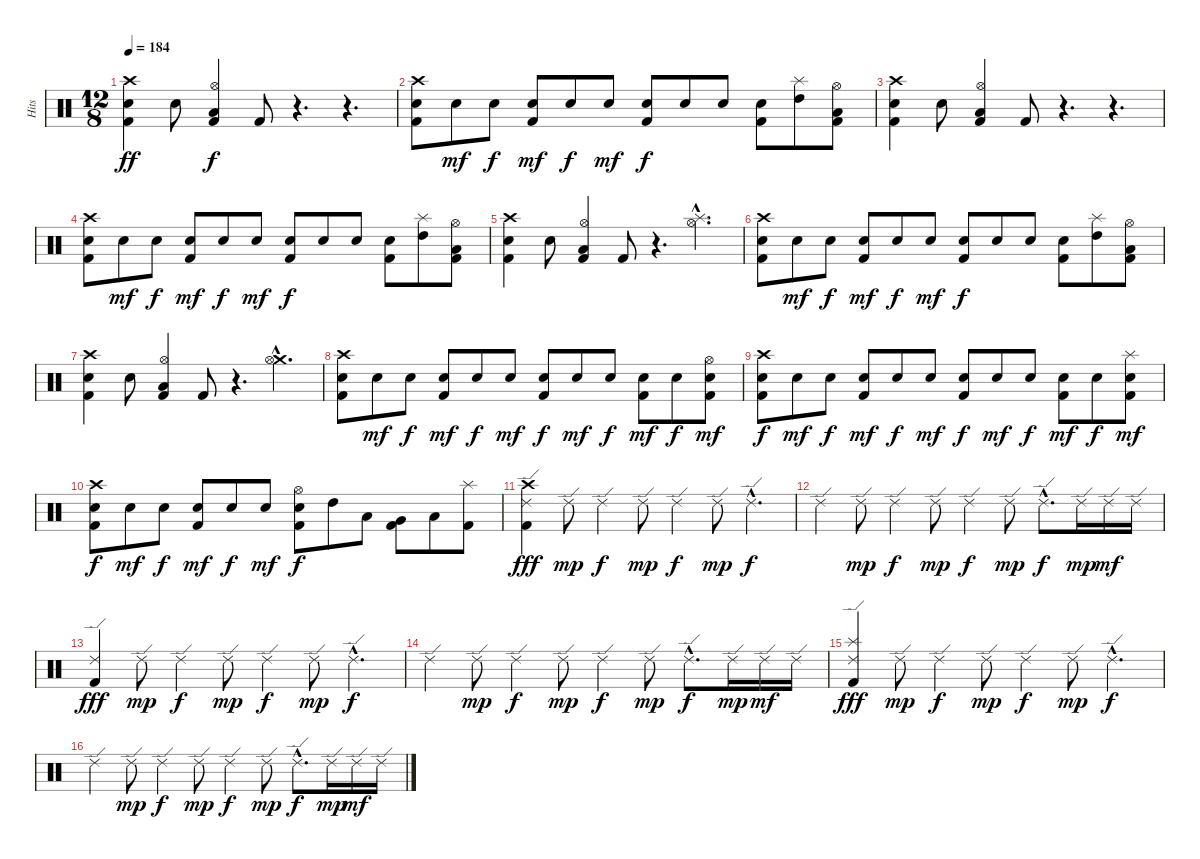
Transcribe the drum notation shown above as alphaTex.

\track ("Hits" "Hits") {instrument percussion}
\staff {score}
\articulation defaults
\ts (12 8)
\tempo 184
\clef neutral
\ks c
("Crash high (hit)" "Electric Snare (hit)" "Kick (hit) 2").4{dy ff} "Electric Snare (hit)".8 ("Hi-Hat (open)" "Low Tom (hit)" "Kick (hit) 2").4{dy f} "Kick (hit) 2".8 r.4{d} r.4{d} |
("Crash high (hit)" "Electric Snare (hit)" "Kick (hit) 2").8 "Electric Snare (hit)".8{dy mf} "Electric Snare (hit)".8{dy f} ("Electric Snare (hit)" "Kick (hit) 2").8{dy mf} "Electric Snare (hit)".8{dy f} "Electric Snare (hit)".8{dy mf} ("Electric Snare (hit)" "Kick (hit) 2").8{dy f} "Electric Snare (hit)".8 "Electric Snare (hit)".8 ("Electric Snare (hit)" "Kick (hit) 2").8 ("Splash (hit)" "High Tom (hit)").8 ("Hi-Hat (open)" "Low Floor Tom (hit)" "Kick (hit) 2").8 |
("Crash high (hit)" "Electric Snare (hit)" "Kick (hit) 2").4 "Electric Snare (hit)".8 ("Hi-Hat (open)" "Low Tom (hit)" "Kick (hit) 2").4 "Kick (hit) 2".8 r.4{d} r.4{d} |
("Crash high (hit)" "Electric Snare (hit)" "Kick (hit) 2").8 "Electric Snare (hit)".8{dy mf} "Electric Snare (hit)".8{dy f} ("Electric Snare (hit)" "Kick (hit) 2").8{dy mf} "Electric Snare (hit)".8{dy f} "Electric Snare (hit)".8{dy mf} ("Electric Snare (hit)" "Kick (hit) 2").8{dy f} "Electric Snare (hit)".8 "Electric Snare (hit)".8 ("Electric Snare (hit)" "Kick (hit) 2").8 ("Splash (hit)" "High Tom (hit)").8 ("Hi-Hat (open)" "Low Floor Tom (hit)" "Kick (hit) 2").8 |
("Crash high (hit)" "Electric Snare (hit)" "Kick (hit) 2").4 "Electric Snare (hit)".8 ("Hi-Hat (open)" "Low Tom (hit)" "Kick (hit) 2").4 "Kick (hit) 2".8 r.4{d} ("Splash (hit)"{hac} "Hi-Hat (open)"{hac}).4{d} |
("Crash high (hit)" "Electric Snare (hit)" "Kick (hit) 2").8 "Electric Snare (hit)".8{dy mf} "Electric Snare (hit)".8{dy f} ("Electric Snare (hit)" "Kick (hit) 2").8{dy mf} "Electric Snare (hit)".8{dy f} "Electric Snare (hit)".8{dy mf} ("Electric Snare (hit)" "Kick (hit) 2").8{dy f} "Electric Snare (hit)".8 "Electric Snare (hit)".8 ("Electric Snare (hit)" "Kick (hit) 2").8 ("Splash (hit)" "High Tom (hit)").8 ("Hi-Hat (open)" "Low Floor Tom (hit)" "Kick (hit) 2").8 |
("Crash high (hit)" "Electric Snare (hit)" "Kick (hit) 2").4 "Electric Snare (hit)".8 ("Hi-Hat (open)" "Low Tom (hit)" "Kick (hit) 2").4 "Kick (hit) 2".8 r.4{d} ("Crash medium (hit)"{hac} "Hi-Hat (open)"{hac}).4{d} |
("Crash high (hit)" "Electric Snare (hit)" "Kick (hit) 2").8 "Electric Snare (hit)".8{dy mf} "Electric Snare (hit)".8{dy f} ("Electric Snare (hit)" "Kick (hit) 2").8{dy mf} "Electric Snare (hit)".8{dy f} "Electric Snare (hit)".8{dy mf} ("Electric Snare (hit)" "Kick (hit) 2").8{dy f} "Electric Snare (hit)".8{dy mf} "Electric Snare (hit)".8{dy f} ("Electric Snare (hit)" "Kick (hit) 2").8{dy mf} "Electric Snare (hit)".8{dy f} ("Hi-Hat (open)" "Electric Snare (hit)" "Kick (hit) 2").8{dy mf} |
("Crash high (hit)" "Electric Snare (hit)" "Kick (hit) 2").8{dy f} "Electric Snare (hit)".8{dy mf} "Electric Snare (hit)".8{dy f} ("Electric Snare (hit)" "Kick (hit) 2").8{dy mf} "Electric Snare (hit)".8{dy f} "Electric Snare (hit)".8{dy mf} ("Electric Snare (hit)" "Kick (hit) 2").8{dy f} "Electric Snare (hit)".8{dy mf} "Electric Snare (hit)".8{dy f} ("Electric Snare (hit)" "Kick (hit) 2").8{dy mf} "Electric Snare (hit)".8{dy f} ("Splash (hit)" "Electric Snare (hit)" "Kick (hit) 2").8{dy mf} |
("Crash high (hit)" "Electric Snare (hit)" "Kick (hit) 2").8{dy f} "Electric Snare (hit)".8{dy mf} "Electric Snare (hit)".8{dy f} ("Electric Snare (hit)" "Kick (hit) 2").8{dy mf} "Electric Snare (hit)".8{dy f} "Electric Snare (hit)".8{dy mf} ("Hi-Hat (open)" "Electric Snare (hit)" "Kick (hit) 2").8{dy f} "High Tom (hit)".8 "Low Tom (hit)".8 ("Very Low Tom (hit)" "Kick (hit) 2").8 "Low Floor Tom (hit)".8 ("Splash (hit)" "Kick (hit) 2").8 |
("Crash high (hit)" "Ride (edge) 2" "Kick (hit) 2").4{dy fff} "Ride (edge) 2".8{dy mp} "Ride (edge) 2".4{dy f} "Ride (edge) 2".8{dy mp} "Ride (edge) 2".4{dy f} "Ride (edge) 2".8{dy mp} "Ride (edge) 2"{hac}.4{d dy f} |
"Ride (edge) 2".4 "Ride (edge) 2".8{dy mp} "Ride (edge) 2".4{dy f} "Ride (edge) 2".8{dy mp} "Ride (edge) 2".4{dy f} "Ride (edge) 2".8{dy mp} "Ride (edge) 2"{hac}.8{d dy f} "Ride (edge) 2".16{dy mp} "Ride (edge) 2".16{dy mf} "Ride (edge) 2".16 |
("Ride (edge) 2" "Kick (hit) 2").4{dy fff} "Ride (edge) 2".8{dy mp} "Ride (edge) 2".4{dy f} "Ride (edge) 2".8{dy mp} "Ride (edge) 2".4{dy f} "Ride (edge) 2".8{dy mp} "Ride (edge) 2"{hac}.4{d dy f} |
"Ride (edge) 2".4 "Ride (edge) 2".8{dy mp} "Ride (edge) 2".4{dy f} "Ride (edge) 2".8{dy mp} "Ride (edge) 2".4{dy f} "Ride (edge) 2".8{dy mp} "Ride (edge) 2"{hac}.8{d dy f} "Ride (edge) 2".16{dy mp} "Ride (edge) 2".16{dy mf} "Ride (edge) 2".16 |
("Splash (hit)" "Ride (edge) 2" "Kick (hit) 2").4{dy fff} "Ride (edge) 2".8{dy mp} "Ride (edge) 2".4{dy f} "Ride (edge) 2".8{dy mp} "Ride (edge) 2".4{dy f} "Ride (edge) 2".8{dy mp} "Ride (edge) 2"{hac}.4{d dy f} |
"Ride (edge) 2".4 "Ride (edge) 2".8{dy mp} "Ride (edge) 2".4{dy f} "Ride (edge) 2".8{dy mp} "Ride (edge) 2".4{dy f} "Ride (edge) 2".8{dy mp} "Ride (edge) 2"{hac}.8{d dy f} "Ride (edge) 2".16{dy mp} "Ride (edge) 2".16{dy mf} "Ride (edge) 2".16
